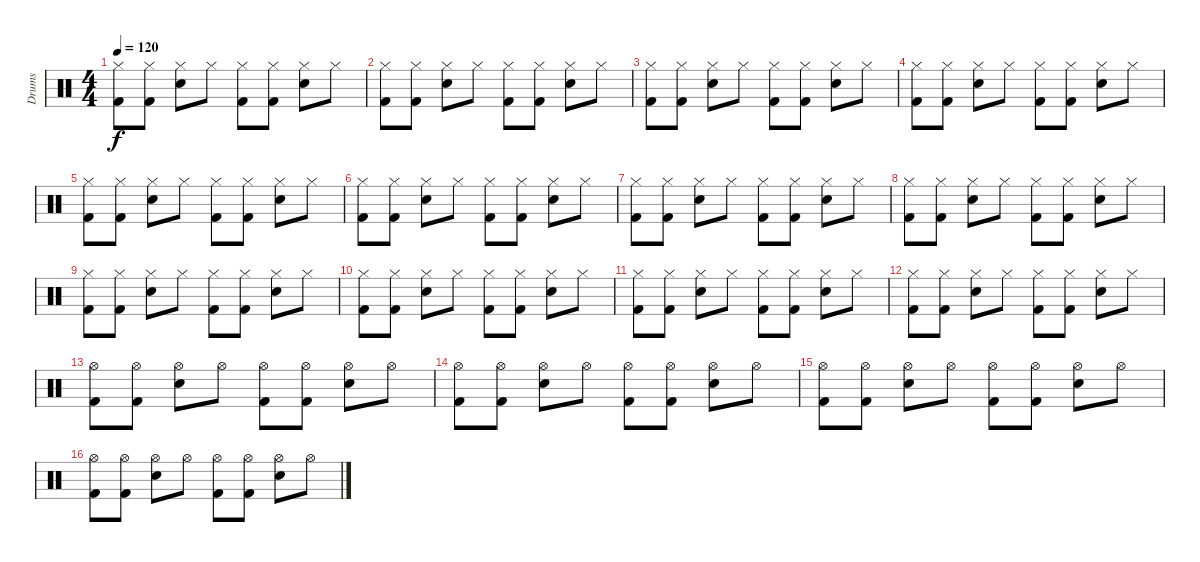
\track ("Drums" "Drums") {instrument percussion}
\staff {score}
\articulation defaults
\ts (4 4)
\tempo 120
\clef neutral
\ks c
("Hi-Hat (closed)" "Kick (hit) 2").8{dy f} ("Hi-Hat (closed)" "Kick (hit) 2").8 ("Hi-Hat (closed)" "Snare (hit) 2").8 "Hi-Hat (closed)".8 ("Hi-Hat (closed)" "Kick (hit) 2").8 ("Hi-Hat (closed)" "Kick (hit) 2").8 ("Hi-Hat (closed)" "Snare (hit) 2").8 "Hi-Hat (closed)".8 |
("Hi-Hat (closed)" "Kick (hit) 2").8 ("Hi-Hat (closed)" "Kick (hit) 2").8 ("Hi-Hat (closed)" "Snare (hit) 2").8 "Hi-Hat (closed)".8 ("Hi-Hat (closed)" "Kick (hit) 2").8 ("Hi-Hat (closed)" "Kick (hit) 2").8 ("Hi-Hat (closed)" "Snare (hit) 2").8 "Hi-Hat (closed)".8 |
("Hi-Hat (closed)" "Kick (hit) 2").8 ("Hi-Hat (closed)" "Kick (hit) 2").8 ("Hi-Hat (closed)" "Snare (hit) 2").8 "Hi-Hat (closed)".8 ("Hi-Hat (closed)" "Kick (hit) 2").8 ("Hi-Hat (closed)" "Kick (hit) 2").8 ("Hi-Hat (closed)" "Snare (hit) 2").8 "Hi-Hat (closed)".8 |
("Hi-Hat (closed)" "Kick (hit) 2").8 ("Hi-Hat (closed)" "Kick (hit) 2").8 ("Hi-Hat (closed)" "Snare (hit) 2").8 "Hi-Hat (closed)".8 ("Hi-Hat (closed)" "Kick (hit) 2").8 ("Hi-Hat (closed)" "Kick (hit) 2").8 ("Hi-Hat (closed)" "Snare (hit) 2").8 "Hi-Hat (closed)".8 |
("Hi-Hat (closed)" "Kick (hit) 2").8 ("Hi-Hat (closed)" "Kick (hit) 2").8 ("Hi-Hat (closed)" "Snare (hit) 2").8 "Hi-Hat (closed)".8 ("Hi-Hat (closed)" "Kick (hit) 2").8 ("Hi-Hat (closed)" "Kick (hit) 2").8 ("Hi-Hat (closed)" "Snare (hit) 2").8 "Hi-Hat (closed)".8 |
("Hi-Hat (closed)" "Kick (hit) 2").8 ("Hi-Hat (closed)" "Kick (hit) 2").8 ("Hi-Hat (closed)" "Snare (hit) 2").8 "Hi-Hat (closed)".8 ("Hi-Hat (closed)" "Kick (hit) 2").8 ("Hi-Hat (closed)" "Kick (hit) 2").8 ("Hi-Hat (closed)" "Snare (hit) 2").8 "Hi-Hat (closed)".8 |
("Hi-Hat (closed)" "Kick (hit) 2").8 ("Hi-Hat (closed)" "Kick (hit) 2").8 ("Hi-Hat (closed)" "Snare (hit) 2").8 "Hi-Hat (closed)".8 ("Hi-Hat (closed)" "Kick (hit) 2").8 ("Hi-Hat (closed)" "Kick (hit) 2").8 ("Hi-Hat (closed)" "Snare (hit) 2").8 "Hi-Hat (closed)".8 |
("Hi-Hat (closed)" "Kick (hit) 2").8 ("Hi-Hat (closed)" "Kick (hit) 2").8 ("Hi-Hat (closed)" "Snare (hit) 2").8 "Hi-Hat (closed)".8 ("Hi-Hat (closed)" "Kick (hit) 2").8 ("Hi-Hat (closed)" "Kick (hit) 2").8 ("Hi-Hat (closed)" "Snare (hit) 2").8 "Hi-Hat (closed)".8 |
("Hi-Hat (closed)" "Kick (hit) 2").8 ("Hi-Hat (closed)" "Kick (hit) 2").8 ("Hi-Hat (closed)" "Snare (hit) 2").8 "Hi-Hat (closed)".8 ("Hi-Hat (closed)" "Kick (hit) 2").8 ("Hi-Hat (closed)" "Kick (hit) 2").8 ("Hi-Hat (closed)" "Snare (hit) 2").8 "Hi-Hat (closed)".8 |
("Hi-Hat (closed)" "Kick (hit) 2").8 ("Hi-Hat (closed)" "Kick (hit) 2").8 ("Hi-Hat (closed)" "Snare (hit) 2").8 "Hi-Hat (closed)".8 ("Hi-Hat (closed)" "Kick (hit) 2").8 ("Hi-Hat (closed)" "Kick (hit) 2").8 ("Hi-Hat (closed)" "Snare (hit) 2").8 "Hi-Hat (closed)".8 |
("Hi-Hat (closed)" "Kick (hit) 2").8 ("Hi-Hat (closed)" "Kick (hit) 2").8 ("Hi-Hat (closed)" "Snare (hit) 2").8 "Hi-Hat (closed)".8 ("Hi-Hat (closed)" "Kick (hit) 2").8 ("Hi-Hat (closed)" "Kick (hit) 2").8 ("Hi-Hat (closed)" "Snare (hit) 2").8 "Hi-Hat (closed)".8 |
("Hi-Hat (closed)" "Kick (hit) 2").8 ("Hi-Hat (closed)" "Kick (hit) 2").8 ("Hi-Hat (closed)" "Snare (hit) 2").8 "Hi-Hat (closed)".8 ("Hi-Hat (closed)" "Kick (hit) 2").8 ("Hi-Hat (closed)" "Kick (hit) 2").8 ("Hi-Hat (closed)" "Snare (hit) 2").8 "Hi-Hat (closed)".8 |
("Hi-Hat (open)" "Kick (hit) 2").8 ("Hi-Hat (open)" "Kick (hit) 2").8 ("Hi-Hat (open)" "Snare (hit) 2").8 "Hi-Hat (open)".8 ("Hi-Hat (open)" "Kick (hit) 2").8 ("Hi-Hat (open)" "Kick (hit) 2").8 ("Hi-Hat (open)" "Snare (hit) 2").8 "Hi-Hat (open)".8 |
("Hi-Hat (open)" "Kick (hit) 2").8 ("Hi-Hat (open)" "Kick (hit) 2").8 ("Hi-Hat (open)" "Snare (hit) 2").8 "Hi-Hat (open)".8 ("Hi-Hat (open)" "Kick (hit) 2").8 ("Hi-Hat (open)" "Kick (hit) 2").8 ("Hi-Hat (open)" "Snare (hit) 2").8 "Hi-Hat (open)".8 |
("Hi-Hat (open)" "Kick (hit) 2").8 ("Hi-Hat (open)" "Kick (hit) 2").8 ("Hi-Hat (open)" "Snare (hit) 2").8 "Hi-Hat (open)".8 ("Hi-Hat (open)" "Kick (hit) 2").8 ("Hi-Hat (open)" "Kick (hit) 2").8 ("Hi-Hat (open)" "Snare (hit) 2").8 "Hi-Hat (open)".8 |
("Hi-Hat (open)" "Kick (hit) 2").8 ("Hi-Hat (open)" "Kick (hit) 2").8 ("Hi-Hat (open)" "Snare (hit) 2").8 "Hi-Hat (open)".8 ("Hi-Hat (open)" "Kick (hit) 2").8 ("Hi-Hat (open)" "Kick (hit) 2").8 ("Hi-Hat (open)" "Snare (hit) 2").8 "Hi-Hat (open)".8
